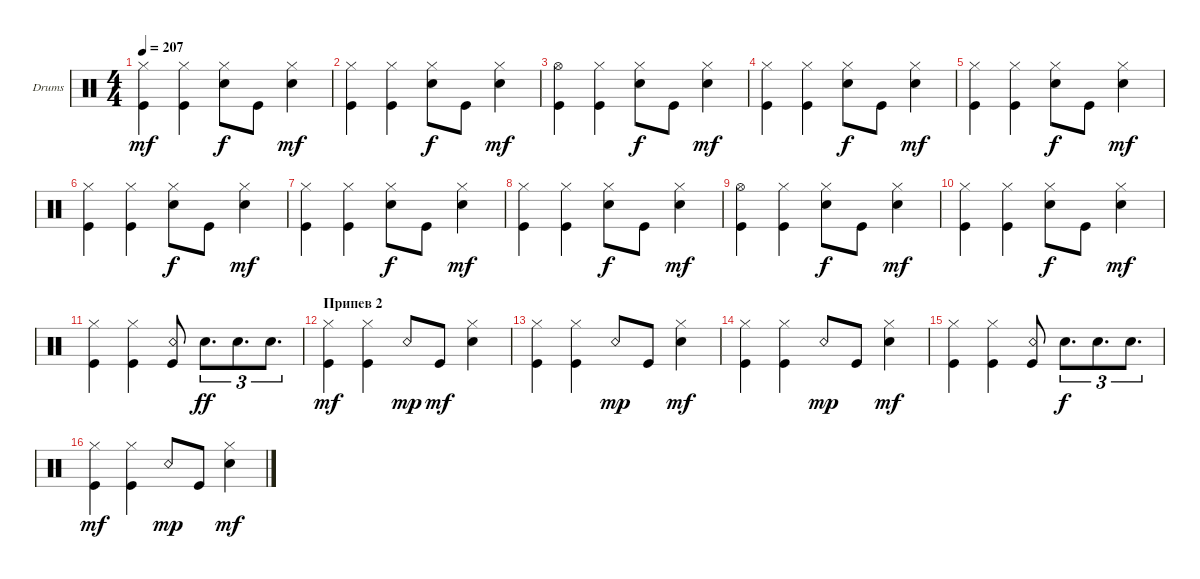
\defaultSystemsLayout 4
\bracketExtendMode groupsimilarinstruments
\firstSystemTrackNameOrientation horizontal
\otherSystemsTrackNameOrientation horizontal
\track ("Drumkit" "Drums") {instrument percussion}
\staff {score}
\articulation defaults
\ts (4 4)
\tempo 207
\clef neutral
\ks c
("Kick (hit)" "Hi-Hat (closed)").4{dy mf} ("Hi-Hat (closed)" "Kick (hit)").4 ("Snare (hit) 2" "Hi-Hat (closed)").8{dy f} "Kick (hit)".8 ("Hi-Hat (closed)" "Snare (hit) 2").4{dy mf} |
("Kick (hit)" "Hi-Hat (closed)").4 ("Hi-Hat (closed)" "Kick (hit)").4 ("Snare (hit) 2" "Hi-Hat (closed)").8{dy f} "Kick (hit)".8 ("Hi-Hat (closed)" "Snare (hit) 2").4{dy mf} |
("Kick (hit)" "Hi-Hat (open)").4 ("Hi-Hat (closed)" "Kick (hit)").4 ("Snare (hit) 2" "Hi-Hat (closed)").8{dy f} "Kick (hit)".8 ("Hi-Hat (closed)" "Snare (hit) 2").4{dy mf} |
("Kick (hit)" "Hi-Hat (closed)").4 ("Hi-Hat (closed)" "Kick (hit)").4 ("Snare (hit) 2" "Hi-Hat (closed)").8{dy f} "Kick (hit)".8 ("Hi-Hat (closed)" "Snare (hit) 2").4{dy mf} |
("Kick (hit)" "Hi-Hat (closed)").4 ("Hi-Hat (closed)" "Kick (hit)").4 ("Snare (hit) 2" "Hi-Hat (closed)").8{dy f} "Kick (hit)".8 ("Hi-Hat (closed)" "Snare (hit) 2").4{dy mf} |
("Kick (hit)" "Hi-Hat (closed)").4 ("Hi-Hat (closed)" "Kick (hit)").4 ("Snare (hit) 2" "Hi-Hat (closed)").8{dy f} "Kick (hit)".8 ("Hi-Hat (closed)" "Snare (hit) 2").4{dy mf} |
("Kick (hit)" "Hi-Hat (closed)").4 ("Hi-Hat (closed)" "Kick (hit)").4 ("Snare (hit) 2" "Hi-Hat (closed)").8{dy f} "Kick (hit)".8 ("Hi-Hat (closed)" "Snare (hit) 2").4{dy mf} |
("Kick (hit)" "Hi-Hat (closed)").4 ("Hi-Hat (closed)" "Kick (hit)").4 ("Snare (hit) 2" "Hi-Hat (closed)").8{dy f} "Kick (hit)".8 ("Hi-Hat (closed)" "Snare (hit) 2").4{dy mf} |
("Kick (hit)" "Hi-Hat (open)").4 ("Hi-Hat (closed)" "Kick (hit)").4 ("Snare (hit) 2" "Hi-Hat (closed)").8{dy f} "Kick (hit)".8 ("Hi-Hat (closed)" "Snare (hit) 2").4{dy mf} |
("Kick (hit)" "Hi-Hat (closed)").4 ("Hi-Hat (closed)" "Kick (hit)").4 ("Snare (hit) 2" "Hi-Hat (closed)").8{dy f} "Kick (hit)".8 ("Hi-Hat (closed)" "Snare (hit) 2").4{dy mf} |
("Kick (hit)" "Hi-Hat (closed)").4 ("Hi-Hat (closed)" "Kick (hit)").4 ("Kick (hit)" "Snare (rim shot)").8 "Snare (hit) 2".8{d tu (3 2) dy ff} "Snare (hit) 2".8{d tu (3 2)} "Snare (hit) 2".8{d tu (3 2)} |
\section ("" "Припев 2")
("Kick (hit)" "Hi-Hat (closed)").4{dy mf} ("Hi-Hat (closed)" "Kick (hit)").4 "Snare (rim shot)".8{dy mp} "Kick (hit)".8{dy mf} ("Hi-Hat (closed)" "Snare (hit) 2").4 |
("Kick (hit)" "Hi-Hat (closed)").4 ("Hi-Hat (closed)" "Kick (hit)").4 "Snare (rim shot)".8{dy mp} "Kick (hit)".8 ("Hi-Hat (closed)" "Snare (hit) 2").4{dy mf} |
("Kick (hit)" "Hi-Hat (closed)").4 ("Hi-Hat (closed)" "Kick (hit)").4 "Snare (rim shot)".8{dy mp} "Kick (hit)".8 ("Hi-Hat (closed)" "Snare (hit) 2").4{dy mf} |
("Kick (hit)" "Hi-Hat (closed)").4 ("Hi-Hat (closed)" "Kick (hit)").4 ("Kick (hit)" "Snare (rim shot)").8 "Snare (hit) 2".8{d tu (3 2) dy f} "Snare (hit) 2".8{d tu (3 2)} "Snare (hit) 2".8{d tu (3 2)} |
("Kick (hit)" "Hi-Hat (closed)").4{dy mf} ("Hi-Hat (closed)" "Kick (hit)").4 "Snare (rim shot)".8{dy mp} "Kick (hit)".8 ("Hi-Hat (closed)" "Snare (hit) 2").4{dy mf}
